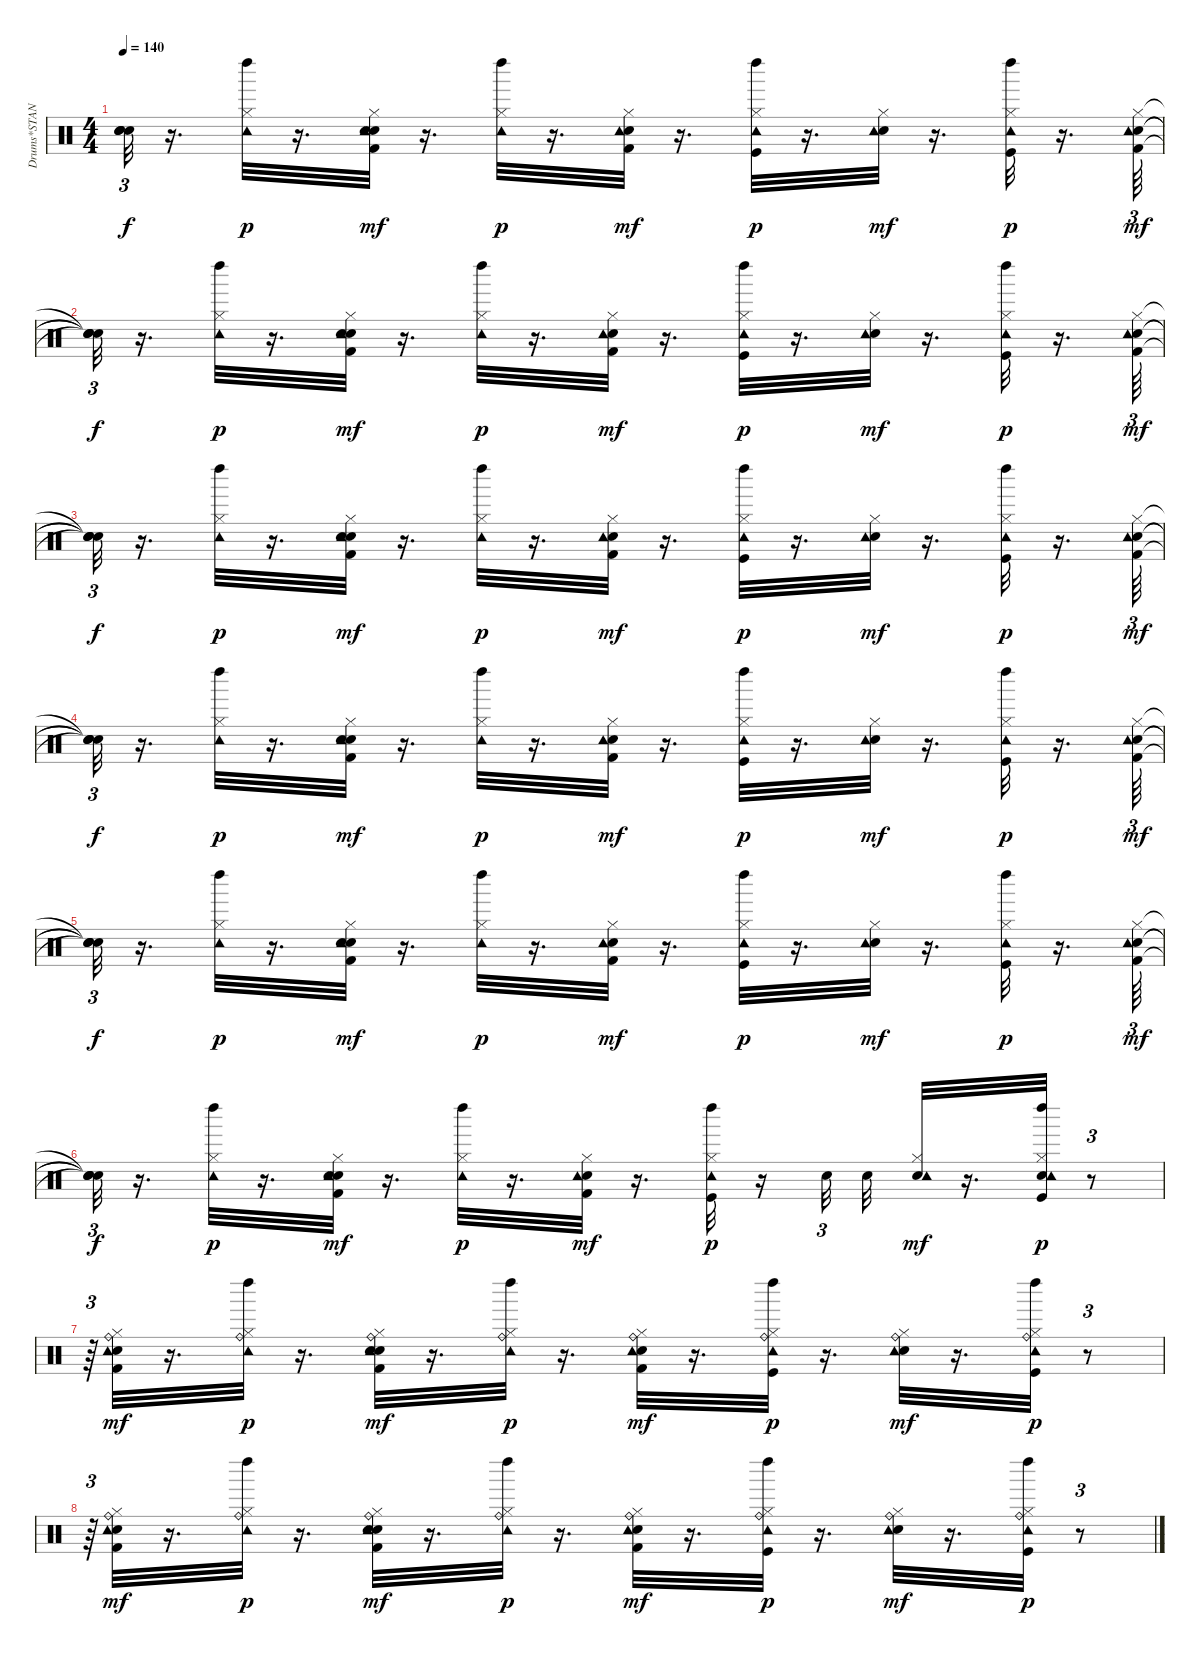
\track ("Drums*STANDARD      " "Drums*STAN") {instrument percussion}
\staff {score}
\articulation defaults
\ts (4 4)
\tempo 140
\clef neutral
\ks c
("Snare (hit)"{t} "Snare (hit)"{t} "Snare (hit)"{t} "Snare (hit)"{t}).32{tu (3 2) dy f} r.16{d} ("Hi-Hat (closed)" "Left Maraca (hit)" "Tambourine (hit)").32{dy p} r.16{d} ("Kick (hit) 2" "Hi-Hat (closed)" "Hand Clap (hit)" "Electric Snare (hit)" "Tambourine (hit)").32{dy mf} r.16{d} ("Hi-Hat (closed)" "Left Maraca (hit)" "Tambourine (hit)").32{dy p} r.16{d} ("Kick (hit) 2" "Hi-Hat (closed)" "Electric Snare (hit)" "Tambourine (hit)").32{dy mf} r.16{d} ("Hi-Hat (closed)" "Left Maraca (hit)" "Kick (hit)" "Tambourine (hit)").32{dy p} r.16{d} ("Hi-Hat (closed)" "Electric Snare (hit)" "Tambourine (hit)").32{dy mf} r.16{d} ("Hi-Hat (closed)" "Left Maraca (hit)" "Kick (hit)" "Tambourine (hit)").32{dy p} r.16{d} ("Kick (hit) 2" "Hi-Hat (closed)" "Electric Snare (hit)" "Tambourine (hit)").64{tu (3 2) dy mf} |
("Snare (hit)"{t} "Snare (hit)"{t} "Snare (hit)"{t} "Snare (hit)"{t}).32{tu (3 2) dy f} r.16{d} ("Hi-Hat (closed)" "Left Maraca (hit)" "Tambourine (hit)").32{dy p} r.16{d} ("Kick (hit) 2" "Hi-Hat (closed)" "Hand Clap (hit)" "Electric Snare (hit)" "Tambourine (hit)").32{dy mf} r.16{d} ("Hi-Hat (closed)" "Left Maraca (hit)" "Tambourine (hit)").32{dy p} r.16{d} ("Kick (hit) 2" "Hi-Hat (closed)" "Electric Snare (hit)" "Tambourine (hit)").32{dy mf} r.16{d} ("Hi-Hat (closed)" "Left Maraca (hit)" "Kick (hit)" "Tambourine (hit)").32{dy p} r.16{d} ("Hi-Hat (closed)" "Electric Snare (hit)" "Tambourine (hit)").32{dy mf} r.16{d} ("Hi-Hat (closed)" "Left Maraca (hit)" "Kick (hit)" "Tambourine (hit)").32{dy p} r.16{d} ("Kick (hit) 2" "Hi-Hat (closed)" "Electric Snare (hit)" "Tambourine (hit)").64{tu (3 2) dy mf} |
("Snare (hit)"{t} "Snare (hit)"{t} "Snare (hit)"{t} "Snare (hit)"{t}).32{tu (3 2) dy f} r.16{d} ("Hi-Hat (closed)" "Left Maraca (hit)" "Tambourine (hit)").32{dy p} r.16{d} ("Kick (hit) 2" "Hi-Hat (closed)" "Hand Clap (hit)" "Electric Snare (hit)" "Tambourine (hit)").32{dy mf} r.16{d} ("Hi-Hat (closed)" "Left Maraca (hit)" "Tambourine (hit)").32{dy p} r.16{d} ("Kick (hit) 2" "Hi-Hat (closed)" "Electric Snare (hit)" "Tambourine (hit)").32{dy mf} r.16{d} ("Hi-Hat (closed)" "Left Maraca (hit)" "Kick (hit)" "Tambourine (hit)").32{dy p} r.16{d} ("Hi-Hat (closed)" "Electric Snare (hit)" "Tambourine (hit)").32{dy mf} r.16{d} ("Hi-Hat (closed)" "Left Maraca (hit)" "Kick (hit)" "Tambourine (hit)").32{dy p} r.16{d} ("Kick (hit) 2" "Hi-Hat (closed)" "Electric Snare (hit)" "Tambourine (hit)").64{tu (3 2) dy mf} |
("Snare (hit)"{t} "Snare (hit)"{t} "Snare (hit)"{t} "Snare (hit)"{t}).32{tu (3 2) dy f} r.16{d} ("Hi-Hat (closed)" "Left Maraca (hit)" "Tambourine (hit)").32{dy p} r.16{d} ("Kick (hit) 2" "Hi-Hat (closed)" "Hand Clap (hit)" "Electric Snare (hit)" "Tambourine (hit)").32{dy mf} r.16{d} ("Hi-Hat (closed)" "Left Maraca (hit)" "Tambourine (hit)").32{dy p} r.16{d} ("Kick (hit) 2" "Hi-Hat (closed)" "Electric Snare (hit)" "Tambourine (hit)").32{dy mf} r.16{d} ("Hi-Hat (closed)" "Left Maraca (hit)" "Kick (hit)" "Tambourine (hit)").32{dy p} r.16{d} ("Hi-Hat (closed)" "Electric Snare (hit)" "Tambourine (hit)").32{dy mf} r.16{d} ("Hi-Hat (closed)" "Left Maraca (hit)" "Kick (hit)" "Tambourine (hit)").32{dy p} r.16{d} ("Kick (hit) 2" "Hi-Hat (closed)" "Electric Snare (hit)" "Tambourine (hit)").64{tu (3 2) dy mf} |
("Snare (hit)"{t} "Snare (hit)"{t} "Snare (hit)"{t} "Snare (hit)"{t}).32{tu (3 2) dy f} r.16{d} ("Hi-Hat (closed)" "Left Maraca (hit)" "Tambourine (hit)").32{dy p} r.16{d} ("Kick (hit) 2" "Hi-Hat (closed)" "Hand Clap (hit)" "Electric Snare (hit)" "Tambourine (hit)").32{dy mf} r.16{d} ("Hi-Hat (closed)" "Left Maraca (hit)" "Tambourine (hit)").32{dy p} r.16{d} ("Kick (hit) 2" "Hi-Hat (closed)" "Electric Snare (hit)" "Tambourine (hit)").32{dy mf} r.16{d} ("Hi-Hat (closed)" "Left Maraca (hit)" "Kick (hit)" "Tambourine (hit)").32{dy p} r.16{d} ("Hi-Hat (closed)" "Electric Snare (hit)" "Tambourine (hit)").32{dy mf} r.16{d} ("Hi-Hat (closed)" "Left Maraca (hit)" "Kick (hit)" "Tambourine (hit)").32{dy p} r.16{d} ("Kick (hit) 2" "Hi-Hat (closed)" "Electric Snare (hit)" "Tambourine (hit)").64{tu (3 2) dy mf} |
("Snare (hit)"{t} "Snare (hit)"{t} "Snare (hit)"{t} "Snare (hit)"{t}).32{tu (3 2) dy f} r.16{d} ("Hi-Hat (closed)" "Left Maraca (hit)" "Tambourine (hit)").32{dy p} r.16{d} ("Kick (hit) 2" "Hi-Hat (closed)" "Hand Clap (hit)" "Electric Snare (hit)" "Tambourine (hit)").32{dy mf} r.16{d} ("Hi-Hat (closed)" "Left Maraca (hit)" "Tambourine (hit)").32{dy p} r.16{d} ("Kick (hit) 2" "Hi-Hat (closed)" "Electric Snare (hit)" "Tambourine (hit)").32{dy mf} r.16{d} ("Hi-Hat (closed)" "Left Maraca (hit)" "Kick (hit)" "Tambourine (hit)").32{dy p} r.16 "Electric Snare (hit)".32{tu (3 2)} "Electric Snare (hit)".32 ("Snare (hit) 2" "Hi-Hat (closed)" "Tambourine (hit)").32{dy mf} r.16{d} ("Snare (hit) 2" "Hi-Hat (closed)" "Left Maraca (hit)" "Kick (hit)" "Tambourine (hit)").32{dy p} r.8{tu (3 2)} |
r.64{tu (3 2)} ("Kick (hit) 2" "Snare (hit) 2" "Hi-Hat (closed)" "Ride (bell)" "Tambourine (hit)").32{dy mf} r.16{d} ("Hi-Hat (closed)" "Left Maraca (hit)" "Ride (bell)" "Tambourine (hit)").32{dy p} r.16{d} ("Kick (hit) 2" "Snare (hit) 2" "Hi-Hat (closed)" "Hand Clap (hit)" "Ride (bell)" "Tambourine (hit)").32{dy mf} r.16{d} ("Hi-Hat (closed)" "Left Maraca (hit)" "Ride (bell)" "Tambourine (hit)").32{dy p} r.16{d} ("Kick (hit) 2" "Snare (hit) 2" "Hi-Hat (closed)" "Ride (bell)" "Tambourine (hit)").32{dy mf} r.16{d} ("Hi-Hat (closed)" "Left Maraca (hit)" "Kick (hit)" "Ride (bell)" "Tambourine (hit)").32{dy p} r.16{d} ("Snare (hit) 2" "Hi-Hat (closed)" "Ride (bell)" "Tambourine (hit)").32{dy mf} r.16{d} ("Hi-Hat (closed)" "Left Maraca (hit)" "Kick (hit)" "Ride (bell)" "Tambourine (hit)").32{dy p} r.8{tu (3 2)} |
r.64{tu (3 2)} ("Kick (hit) 2" "Snare (hit) 2" "Hi-Hat (closed)" "Ride (bell)" "Tambourine (hit)").32{dy mf} r.16{d} ("Hi-Hat (closed)" "Left Maraca (hit)" "Ride (bell)" "Tambourine (hit)").32{dy p} r.16{d} ("Kick (hit) 2" "Snare (hit) 2" "Hi-Hat (closed)" "Hand Clap (hit)" "Ride (bell)" "Tambourine (hit)").32{dy mf} r.16{d} ("Hi-Hat (closed)" "Left Maraca (hit)" "Ride (bell)" "Tambourine (hit)").32{dy p} r.16{d} ("Kick (hit) 2" "Snare (hit) 2" "Hi-Hat (closed)" "Ride (bell)" "Tambourine (hit)").32{dy mf} r.16{d} ("Hi-Hat (closed)" "Left Maraca (hit)" "Kick (hit)" "Ride (bell)" "Tambourine (hit)").32{dy p} r.16{d} ("Snare (hit) 2" "Hi-Hat (closed)" "Ride (bell)" "Tambourine (hit)").32{dy mf} r.16{d} ("Hi-Hat (closed)" "Left Maraca (hit)" "Kick (hit)" "Ride (bell)" "Tambourine (hit)").32{dy p} r.8{tu (3 2)}
